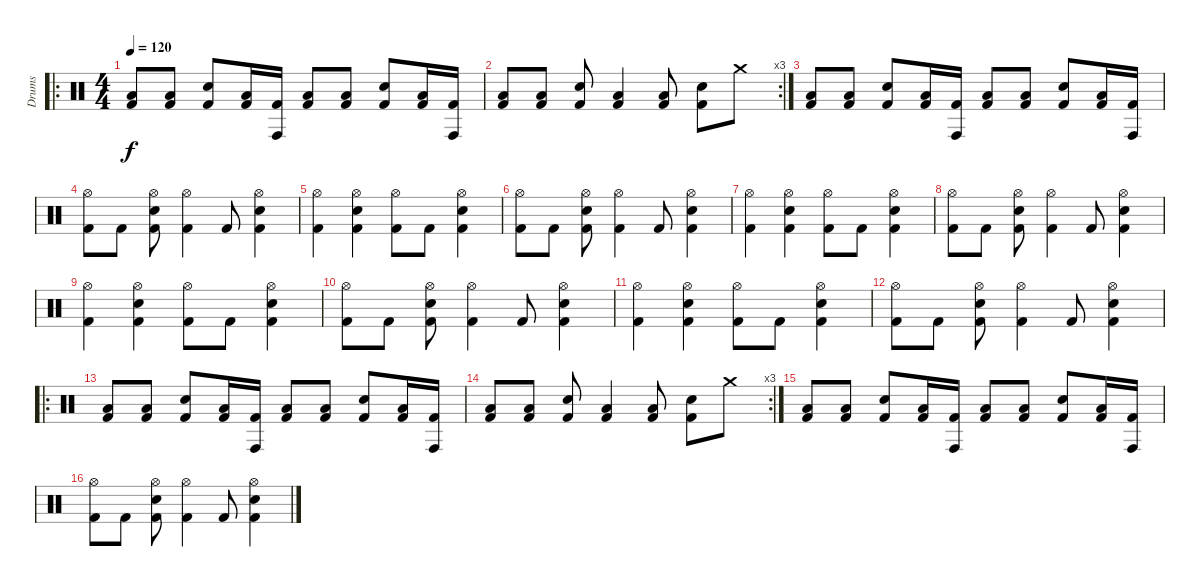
\track ("Drums" "Drums") {instrument percussion}
\staff {score}
\articulation defaults
\ro
\ts (4 4)
\tempo 120
\clef neutral
\ks c
("Low Floor Tom (hit)" "Kick (hit) 2").8{dy f} ("Low Floor Tom (hit)" "Kick (hit) 2").8 ("Electric Snare (hit)" "Kick (hit) 2").8 ("Low Floor Tom (hit)" "Kick (hit) 2").16 ("Conga high (hit)" "Kick (hit) 2").16 ("Low Floor Tom (hit)" "Kick (hit) 2").8 ("Low Floor Tom (hit)" "Kick (hit) 2").8 ("Electric Snare (hit)" "Kick (hit) 2").8 ("Low Floor Tom (hit)" "Kick (hit) 2").16 ("Conga high (hit)" "Kick (hit) 2").16 |
\rc 3
("Low Floor Tom (hit)" "Kick (hit) 2").8 ("Low Floor Tom (hit)" "Kick (hit) 2").8 ("Electric Snare (hit)" "Kick (hit) 2").8 ("Low Floor Tom (hit)" "Kick (hit) 2").4 ("Low Floor Tom (hit)" "Kick (hit) 2").8 ("Electric Snare (hit)" "Kick (hit) 2").8 "Crash medium (hit)".8 |
("Low Floor Tom (hit)" "Kick (hit) 2").8 ("Low Floor Tom (hit)" "Kick (hit) 2").8 ("Electric Snare (hit)" "Kick (hit) 2").8 ("Low Floor Tom (hit)" "Kick (hit) 2").16 ("Conga high (hit)" "Kick (hit) 2").16 ("Low Floor Tom (hit)" "Kick (hit) 2").8 ("Low Floor Tom (hit)" "Kick (hit) 2").8 ("Electric Snare (hit)" "Kick (hit) 2").8 ("Low Floor Tom (hit)" "Kick (hit) 2").16 ("Conga high (hit)" "Kick (hit) 2").16 |
("Hi-Hat (open)" "Kick (hit) 2").8 "Kick (hit) 2".8 ("Hi-Hat (open)" "Electric Snare (hit)" "Kick (hit) 2").8 ("Hi-Hat (open)" "Kick (hit) 2").4 "Kick (hit) 2".8 ("Hi-Hat (open)" "Electric Snare (hit)" "Kick (hit) 2").4 |
("Hi-Hat (open)" "Kick (hit) 2").4 ("Hi-Hat (open)" "Electric Snare (hit)" "Kick (hit) 2").4 ("Hi-Hat (open)" "Kick (hit) 2").8 "Kick (hit) 2".8 ("Hi-Hat (open)" "Electric Snare (hit)" "Kick (hit) 2").4 |
("Hi-Hat (open)" "Kick (hit) 2").8 "Kick (hit) 2".8 ("Hi-Hat (open)" "Electric Snare (hit)" "Kick (hit) 2").8 ("Hi-Hat (open)" "Kick (hit) 2").4 "Kick (hit) 2".8 ("Hi-Hat (open)" "Electric Snare (hit)" "Kick (hit) 2").4 |
("Hi-Hat (open)" "Kick (hit) 2").4 ("Hi-Hat (open)" "Electric Snare (hit)" "Kick (hit) 2").4 ("Hi-Hat (open)" "Kick (hit) 2").8 "Kick (hit) 2".8 ("Hi-Hat (open)" "Electric Snare (hit)" "Kick (hit) 2").4 |
("Hi-Hat (open)" "Kick (hit) 2").8 "Kick (hit) 2".8 ("Hi-Hat (open)" "Electric Snare (hit)" "Kick (hit) 2").8 ("Hi-Hat (open)" "Kick (hit) 2").4 "Kick (hit) 2".8 ("Hi-Hat (open)" "Electric Snare (hit)" "Kick (hit) 2").4 |
("Hi-Hat (open)" "Kick (hit) 2").4 ("Hi-Hat (open)" "Electric Snare (hit)" "Kick (hit) 2").4 ("Hi-Hat (open)" "Kick (hit) 2").8 "Kick (hit) 2".8 ("Hi-Hat (open)" "Electric Snare (hit)" "Kick (hit) 2").4 |
("Hi-Hat (open)" "Kick (hit) 2").8 "Kick (hit) 2".8 ("Hi-Hat (open)" "Electric Snare (hit)" "Kick (hit) 2").8 ("Hi-Hat (open)" "Kick (hit) 2").4 "Kick (hit) 2".8 ("Hi-Hat (open)" "Electric Snare (hit)" "Kick (hit) 2").4 |
("Hi-Hat (open)" "Kick (hit) 2").4 ("Hi-Hat (open)" "Electric Snare (hit)" "Kick (hit) 2").4 ("Hi-Hat (open)" "Kick (hit) 2").8 "Kick (hit) 2".8 ("Hi-Hat (open)" "Electric Snare (hit)" "Kick (hit) 2").4 |
("Hi-Hat (open)" "Kick (hit) 2").8 "Kick (hit) 2".8 ("Hi-Hat (open)" "Electric Snare (hit)" "Kick (hit) 2").8 ("Hi-Hat (open)" "Kick (hit) 2").4 "Kick (hit) 2".8 ("Hi-Hat (open)" "Electric Snare (hit)" "Kick (hit) 2").4 |
\ro
("Low Floor Tom (hit)" "Kick (hit) 2").8 ("Low Floor Tom (hit)" "Kick (hit) 2").8 ("Electric Snare (hit)" "Kick (hit) 2").8 ("Low Floor Tom (hit)" "Kick (hit) 2").16 ("Conga high (hit)" "Kick (hit) 2").16 ("Low Floor Tom (hit)" "Kick (hit) 2").8 ("Low Floor Tom (hit)" "Kick (hit) 2").8 ("Electric Snare (hit)" "Kick (hit) 2").8 ("Low Floor Tom (hit)" "Kick (hit) 2").16 ("Conga high (hit)" "Kick (hit) 2").16 |
\rc 3
("Low Floor Tom (hit)" "Kick (hit) 2").8 ("Low Floor Tom (hit)" "Kick (hit) 2").8 ("Electric Snare (hit)" "Kick (hit) 2").8 ("Low Floor Tom (hit)" "Kick (hit) 2").4 ("Low Floor Tom (hit)" "Kick (hit) 2").8 ("Electric Snare (hit)" "Kick (hit) 2").8 "Crash medium (hit)".8 |
("Low Floor Tom (hit)" "Kick (hit) 2").8 ("Low Floor Tom (hit)" "Kick (hit) 2").8 ("Electric Snare (hit)" "Kick (hit) 2").8 ("Low Floor Tom (hit)" "Kick (hit) 2").16 ("Conga high (hit)" "Kick (hit) 2").16 ("Low Floor Tom (hit)" "Kick (hit) 2").8 ("Low Floor Tom (hit)" "Kick (hit) 2").8 ("Electric Snare (hit)" "Kick (hit) 2").8 ("Low Floor Tom (hit)" "Kick (hit) 2").16 ("Conga high (hit)" "Kick (hit) 2").16 |
("Hi-Hat (open)" "Kick (hit) 2").8 "Kick (hit) 2".8 ("Hi-Hat (open)" "Electric Snare (hit)" "Kick (hit) 2").8 ("Hi-Hat (open)" "Kick (hit) 2").4 "Kick (hit) 2".8 ("Hi-Hat (open)" "Electric Snare (hit)" "Kick (hit) 2").4
